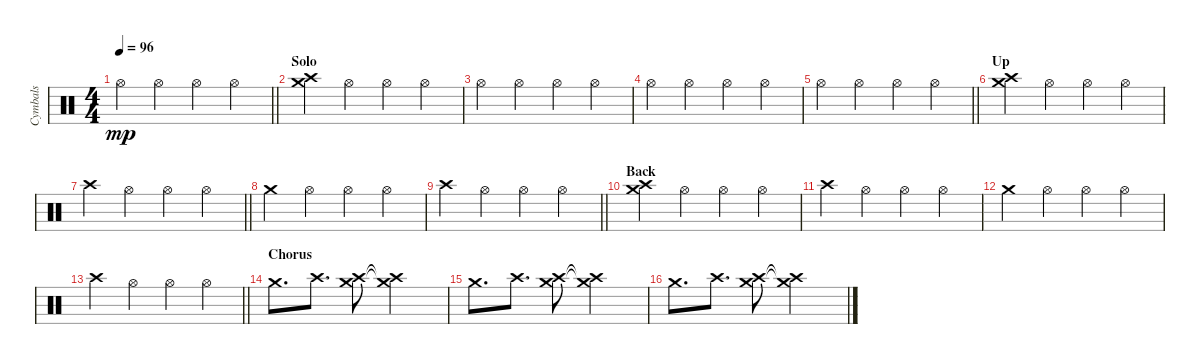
\track ("Cymbals" "Cymbals") {instrument percussion}
\staff {score}
\articulation defaults
\ts (4 4)
\tempo 96
\clef neutral
\barLineRight lightlight
\ks c "Hi-Hat (open)".4{dy mp} "Hi-Hat (open)".4 "Hi-Hat (open)".4 "Hi-Hat (open)".4
|
\section ("" "Solo")
("Crash medium (hit)" "Crash high (hit)").4 "Hi-Hat (open)".4 "Hi-Hat (open)".4 "Hi-Hat (open)".4 |
"Hi-Hat (open)".4 "Hi-Hat (open)".4 "Hi-Hat (open)".4 "Hi-Hat (open)".4 |
"Hi-Hat (open)".4 "Hi-Hat (open)".4 "Hi-Hat (open)".4 "Hi-Hat (open)".4 |
\barLineRight lightlight "Hi-Hat (open)".4 "Hi-Hat (open)".4 "Hi-Hat (open)".4 "Hi-Hat (open)".4
|
\section ("" "Up")
("Crash medium (hit)" "Crash high (hit)").4 "Hi-Hat (open)".4 "Hi-Hat (open)".4 "Hi-Hat (open)".4 |
\barLineRight lightlight "Crash high (hit)".4 "Hi-Hat (open)".4 "Hi-Hat (open)".4 "Hi-Hat (open)".4
|
"Crash medium (hit)".4 "Hi-Hat (open)".4 "Hi-Hat (open)".4 "Hi-Hat (open)".4 |
\barLineRight lightlight "Crash high (hit)".4 "Hi-Hat (open)".4 "Hi-Hat (open)".4 "Hi-Hat (open)".4
|
\section ("" "Back")
("Crash medium (hit)" "Crash high (hit)").4 "Hi-Hat (open)".4 "Hi-Hat (open)".4 "Hi-Hat (open)".4 |
"Crash high (hit)".4 "Hi-Hat (open)".4 "Hi-Hat (open)".4 "Hi-Hat (open)".4 |
"Crash medium (hit)".4 "Hi-Hat (open)".4 "Hi-Hat (open)".4 "Hi-Hat (open)".4 |
\barLineRight lightlight "Crash high (hit)".4 "Hi-Hat (open)".4 "Hi-Hat (open)".4 "Hi-Hat (open)".4
|
\section ("" "Chorus")
"Crash medium (hit)".8{d} "Crash high (hit)".8{d} ("Crash medium (hit)" "Crash high (hit)").8 ("Crash medium (hit)"{t} "Crash high (hit)"{t}).2 |
"Crash medium (hit)".8{d} "Crash high (hit)".8{d} ("Crash medium (hit)" "Crash high (hit)").8 ("Crash medium (hit)"{t} "Crash high (hit)"{t}).2 |
"Crash medium (hit)".8{d} "Crash high (hit)".8{d} ("Crash medium (hit)" "Crash high (hit)").8 ("Crash medium (hit)"{t} "Crash high (hit)"{t}).2
